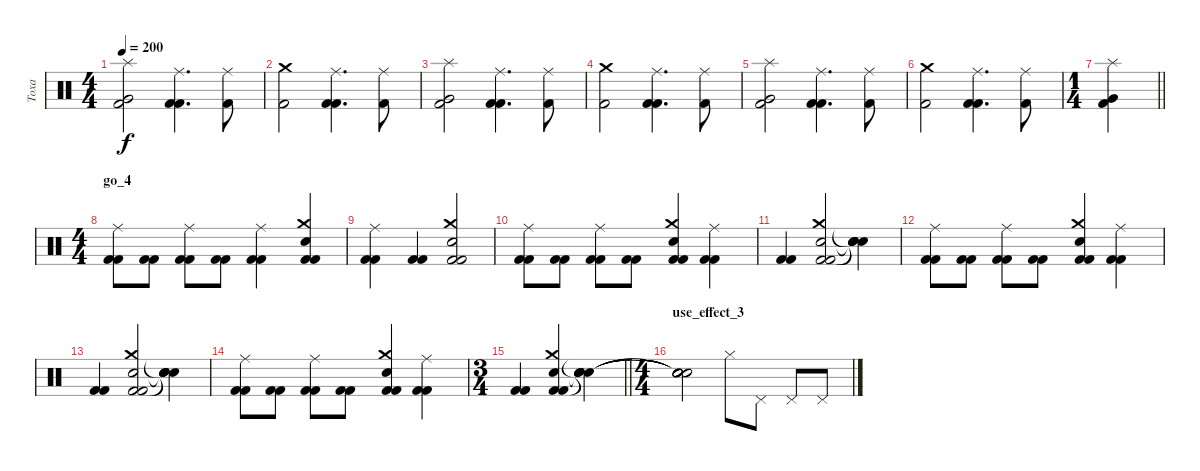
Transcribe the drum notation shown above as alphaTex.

\track ("Toxa" "Toxa") {instrument percussion}
\staff {score}
\articulation defaults
\ts (4 4)
\tempo 200
\clef neutral
\ks c
("Kick (hit) 2" "Very Low Tom (hit)" "Splash (hit)").2{dy f} ("Kick (hit) 2" "Ride (middle)" "Kick (hit) 2").4{d} ("Ride (middle)" "Kick (hit) 2").8 |
("Crash medium (hit)" "Kick (hit) 2").2 ("Kick (hit) 2" "Ride (middle)" "Kick (hit) 2").4{d} ("Ride (middle)" "Kick (hit) 2").8 |
("Kick (hit) 2" "Very Low Tom (hit)" "Splash (hit)").2 ("Kick (hit) 2" "Ride (middle)" "Kick (hit) 2").4{d} ("Ride (middle)" "Kick (hit) 2").8 |
("Crash medium (hit)" "Kick (hit) 2").2 ("Kick (hit) 2" "Ride (middle)" "Kick (hit) 2").4{d} ("Ride (middle)" "Kick (hit) 2").8 |
("Kick (hit) 2" "Very Low Tom (hit)" "Splash (hit)").2 ("Kick (hit) 2" "Ride (middle)" "Kick (hit) 2").4{d} ("Ride (middle)" "Kick (hit) 2").8 |
("Crash medium (hit)" "Kick (hit) 2").2 ("Kick (hit) 2" "Ride (middle)" "Kick (hit) 2").4{d} ("Ride (middle)" "Kick (hit) 2").8 |
\ts (1 4)
\barLineRight lightlight
("Kick (hit) 2" "Very Low Tom (hit)" "Splash (hit)").4 |
\ts (4 4)
\section ("" "go_4")
("Kick (hit) 2" "Ride (middle)" "Kick (hit) 2").8 ("Kick (hit) 2" "Kick (hit) 2").8 ("Kick (hit) 2" "Ride (middle)" "Kick (hit) 2").8 ("Kick (hit) 2" "Kick (hit) 2").8 ("Kick (hit) 2" "Ride (middle)" "Kick (hit) 2").4 ("Kick (hit) 2" "Electric Snare (hit)" "Kick (hit) 2" "Crash medium (hit)").4 |
("Kick (hit) 2" "Ride (middle)" "Kick (hit) 2").4 ("Kick (hit) 2" "Kick (hit) 2").4 ("Crash medium (hit)" "Kick (hit) 2" "Electric Snare (hit)" "Kick (hit) 2").2 |
("Kick (hit) 2" "Ride (middle)" "Kick (hit) 2").8 ("Kick (hit) 2" "Kick (hit) 2").8 ("Ride (middle)" "Kick (hit) 2" "Kick (hit) 2").8 ("Kick (hit) 2" "Kick (hit) 2").8 ("Crash medium (hit)" "Kick (hit) 2" "Electric Snare (hit)" "Kick (hit) 2").4 ("Kick (hit) 2" "Ride (middle)" "Kick (hit) 2").4 |
("Kick (hit) 2" "Kick (hit) 2").4 ("Crash medium (hit)" "Kick (hit) 2" "Electric Snare (hit)" "Kick (hit) 2").2 ("Snare (hit)"{t} "Snare (hit)"{t} "Snare (hit)"{t} "Snare (hit)"{t}).4 |
("Kick (hit) 2" "Ride (middle)" "Kick (hit) 2").8 ("Kick (hit) 2" "Kick (hit) 2").8 ("Ride (middle)" "Kick (hit) 2" "Kick (hit) 2").8 ("Kick (hit) 2" "Kick (hit) 2").8 ("Crash medium (hit)" "Kick (hit) 2" "Electric Snare (hit)" "Kick (hit) 2").4 ("Kick (hit) 2" "Ride (middle)" "Kick (hit) 2").4 |
("Kick (hit) 2" "Kick (hit) 2").4 ("Crash medium (hit)" "Kick (hit) 2" "Electric Snare (hit)" "Kick (hit) 2").2 ("Snare (hit)"{t} "Snare (hit)"{t} "Snare (hit)"{t} "Snare (hit)"{t}).4 |
("Kick (hit) 2" "Ride (middle)" "Kick (hit) 2").8 ("Kick (hit) 2" "Kick (hit) 2").8 ("Ride (middle)" "Kick (hit) 2" "Kick (hit) 2").8 ("Kick (hit) 2" "Kick (hit) 2").8 ("Crash medium (hit)" "Kick (hit) 2" "Electric Snare (hit)" "Kick (hit) 2").4 ("Kick (hit) 2" "Ride (middle)" "Kick (hit) 2").4 |
\ts (3 4)
\barLineRight lightlight
("Kick (hit) 2" "Kick (hit) 2").4 ("Crash medium (hit)" "Kick (hit) 2" "Electric Snare (hit)" "Kick (hit) 2").4 ("Snare (hit)"{t} "Snare (hit)"{t} "Snare (hit)"{t} "Snare (hit)"{t}).4 |
\ts (4 4)
\section ("" "use_effect_3")
("Snare (hit)"{t} "Snare (hit)"{t} "Snare (hit)"{t} "Snare (hit)"{t}).2 "Hi-Hat (closed)".8 "Pedal Hi-Hat (hit)".8 "Pedal Hi-Hat (hit)".8 "Pedal Hi-Hat (hit)".8
